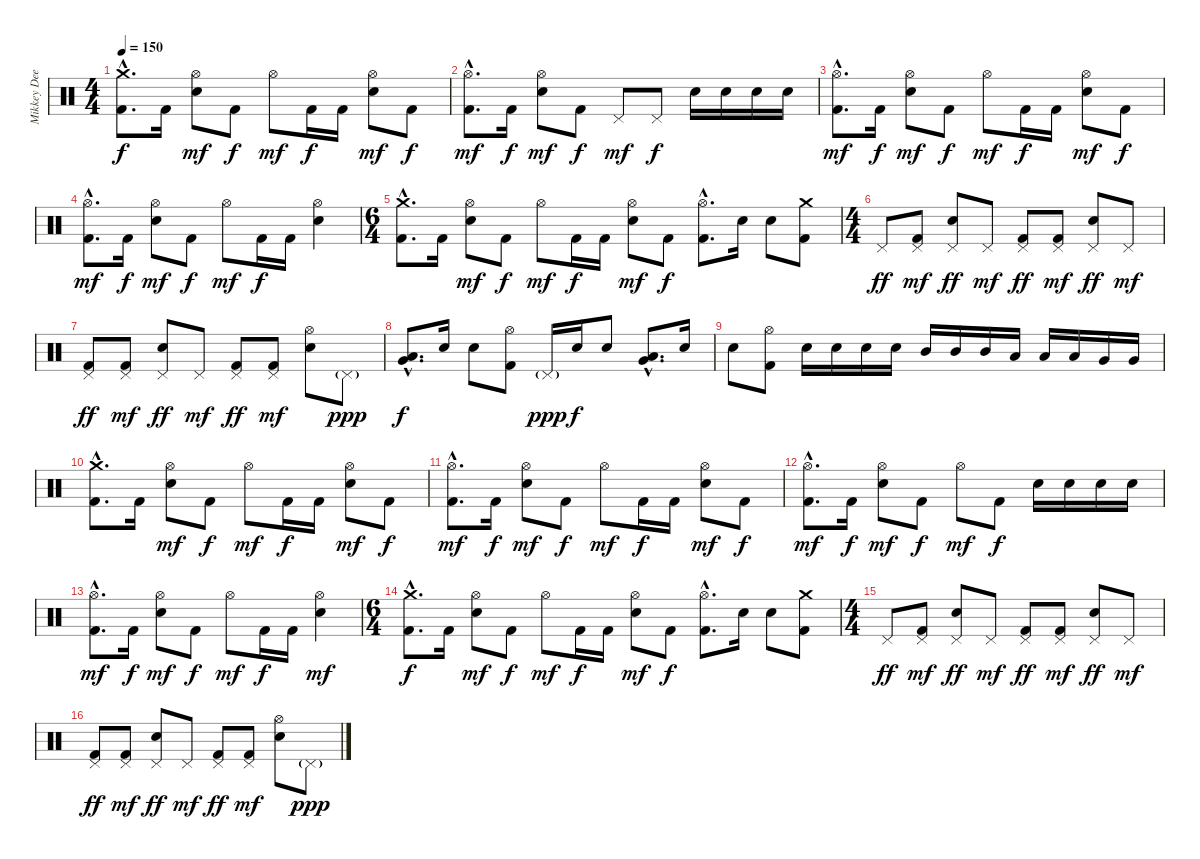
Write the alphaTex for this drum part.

\track ("Mikkey Dee" "Mikkey Dee") {instrument percussion}
\staff {score}
\articulation defaults
\ts (4 4)
\tempo 150
\clef neutral
\ks c
("Kick (hit) 2"{hac} "Crash medium (hit)"{hac}).8{d dy f} "Kick (hit) 2".16 ("Hi-Hat (open)" "Snare (hit) 2").8{dy mf} "Kick (hit) 2".8{dy f} "Hi-Hat (open)".8{dy mf} "Kick (hit) 2".16{dy f} "Kick (hit) 2".16 ("Hi-Hat (open)" "Snare (hit) 2").8{dy mf} "Kick (hit) 2".8{dy f} |
("Kick (hit) 2"{hac} "Hi-Hat (open)"{hac}).8{d dy mf} "Kick (hit) 2".16{dy f} ("Hi-Hat (open)" "Snare (hit) 2").8{dy mf} "Kick (hit) 2".8{dy f} "Pedal Hi-Hat (hit)".8{dy mf} "Pedal Hi-Hat (hit)".8{dy f} "Snare (hit) 2".16 "Snare (hit) 2".16 "Snare (hit) 2".16 "Snare (hit) 2".16 |
("Kick (hit) 2"{hac} "Hi-Hat (open)"{hac}).8{d dy mf} "Kick (hit) 2".16{dy f} ("Hi-Hat (open)" "Snare (hit) 2").8{dy mf} "Kick (hit) 2".8{dy f} "Hi-Hat (open)".8{dy mf} "Kick (hit) 2".16{dy f} "Kick (hit) 2".16 ("Hi-Hat (open)" "Snare (hit) 2").8{dy mf} "Kick (hit) 2".8{dy f} |
("Kick (hit) 2"{hac} "Hi-Hat (open)"{hac}).8{d dy mf} "Kick (hit) 2".16{dy f} ("Hi-Hat (open)" "Snare (hit) 2").8{dy mf} "Kick (hit) 2".8{dy f} "Hi-Hat (open)".8{dy mf} "Kick (hit) 2".16{dy f} "Kick (hit) 2".16 ("Hi-Hat (open)" "Snare (hit) 2").4 |
\ts (6 4)
("Kick (hit) 2"{hac} "Crash medium (hit)"{hac}).8{d} "Kick (hit) 2".16 ("Hi-Hat (open)" "Snare (hit) 2").8{dy mf} "Kick (hit) 2".8{dy f} "Hi-Hat (open)".8{dy mf} "Kick (hit) 2".16{dy f} "Kick (hit) 2".16 ("Hi-Hat (open)" "Snare (hit) 2").8{dy mf} "Kick (hit) 2".8{dy f} ("Kick (hit) 2"{hac} "Hi-Hat (open)"{hac}).8{d} "Snare (hit) 2".16 "Snare (hit) 2".8 ("Kick (hit) 2" "Crash medium (hit)").8 |
\ts (4 4)
"Pedal Hi-Hat (hit)".8{dy ff} ("Kick (hit) 2" "Pedal Hi-Hat (hit)").8{dy mf} ("Pedal Hi-Hat (hit)" "Snare (hit) 2").8{dy ff} "Pedal Hi-Hat (hit)".8{dy mf} ("Kick (hit) 2" "Pedal Hi-Hat (hit)").8{dy ff} ("Kick (hit) 2" "Pedal Hi-Hat (hit)").8{dy mf} ("Pedal Hi-Hat (hit)" "Snare (hit) 2").8{dy ff} "Pedal Hi-Hat (hit)".8{dy mf} |
("Kick (hit) 2" "Pedal Hi-Hat (hit)").8{dy ff} ("Kick (hit) 2" "Pedal Hi-Hat (hit)").8{dy mf} ("Pedal Hi-Hat (hit)" "Snare (hit) 2").8{dy ff} "Pedal Hi-Hat (hit)".8{dy mf} ("Kick (hit) 2" "Pedal Hi-Hat (hit)").8{dy ff} ("Kick (hit) 2" "Pedal Hi-Hat (hit)").8{dy mf} ("Hi-Hat (open)" "Snare (hit) 2").8 "Pedal Hi-Hat (hit)"{g}.8{dy ppp} |
("Low Floor Tom (hit)"{hac} "Very Low Tom (hit)"{hac}).8{d dy f} "Snare (hit) 2".16 "Snare (hit) 2".8 ("Kick (hit) 2" "Hi-Hat (open)").8 "Pedal Hi-Hat (hit)"{g}.16{dy ppp} "Snare (hit) 2".16{dy f} "Snare (hit) 2".8 ("Low Floor Tom (hit)"{hac} "Very Low Tom (hit)"{hac}).8{d} "Snare (hit) 2".16 |
"Snare (hit) 2".8 ("Kick (hit) 2" "Hi-Hat (open)").8 "Snare (hit) 2".16 "Snare (hit) 2".16 "Snare (hit) 2".16 "Snare (hit) 2".16 "Mid Tom (hit)".16 "Mid Tom (hit)".16 "Mid Tom (hit)".16 "Low Tom (hit)".16 "Low Tom (hit)".16 "Low Tom (hit)".16 "Very Low Tom (hit)".16 "Very Low Tom (hit)".16 |
("Kick (hit) 2"{hac} "Crash medium (hit)"{hac}).8{d} "Kick (hit) 2".16 ("Hi-Hat (open)" "Snare (hit) 2").8{dy mf} "Kick (hit) 2".8{dy f} "Hi-Hat (open)".8{dy mf} "Kick (hit) 2".16{dy f} "Kick (hit) 2".16 ("Hi-Hat (open)" "Snare (hit) 2").8{dy mf} "Kick (hit) 2".8{dy f} |
("Kick (hit) 2"{hac} "Hi-Hat (open)"{hac}).8{d dy mf} "Kick (hit) 2".16{dy f} ("Hi-Hat (open)" "Snare (hit) 2").8{dy mf} "Kick (hit) 2".8{dy f} "Hi-Hat (open)".8{dy mf} "Kick (hit) 2".16{dy f} "Kick (hit) 2".16 ("Hi-Hat (open)" "Snare (hit) 2").8{dy mf} "Kick (hit) 2".8{dy f} |
("Kick (hit) 2"{hac} "Hi-Hat (open)"{hac}).8{d dy mf} "Kick (hit) 2".16{dy f} ("Hi-Hat (open)" "Snare (hit) 2").8{dy mf} "Kick (hit) 2".8{dy f} "Hi-Hat (open)".8{dy mf} "Kick (hit) 2".8{dy f} "Snare (hit) 2".16 "Snare (hit) 2".16 "Snare (hit) 2".16 "Snare (hit) 2".16 |
("Kick (hit) 2"{hac} "Hi-Hat (open)"{hac}).8{d dy mf} "Kick (hit) 2".16{dy f} ("Hi-Hat (open)" "Snare (hit) 2").8{dy mf} "Kick (hit) 2".8{dy f} "Hi-Hat (open)".8{dy mf} "Kick (hit) 2".16{dy f} "Kick (hit) 2".16 ("Hi-Hat (open)" "Snare (hit) 2").4{dy mf} |
\ts (6 4)
("Kick (hit) 2"{hac} "Crash medium (hit)"{hac}).8{d dy f} "Kick (hit) 2".16 ("Hi-Hat (open)" "Snare (hit) 2").8{dy mf} "Kick (hit) 2".8{dy f} "Hi-Hat (open)".8{dy mf} "Kick (hit) 2".16{dy f} "Kick (hit) 2".16 ("Hi-Hat (open)" "Snare (hit) 2").8{dy mf} "Kick (hit) 2".8{dy f} ("Kick (hit) 2"{hac} "Hi-Hat (open)"{hac}).8{d} "Snare (hit) 2".16 "Snare (hit) 2".8 ("Kick (hit) 2" "Crash medium (hit)").8 |
\ts (4 4)
"Pedal Hi-Hat (hit)".8{dy ff} ("Kick (hit) 2" "Pedal Hi-Hat (hit)").8{dy mf} ("Pedal Hi-Hat (hit)" "Snare (hit) 2").8{dy ff} "Pedal Hi-Hat (hit)".8{dy mf} ("Kick (hit) 2" "Pedal Hi-Hat (hit)").8{dy ff} ("Kick (hit) 2" "Pedal Hi-Hat (hit)").8{dy mf} ("Pedal Hi-Hat (hit)" "Snare (hit) 2").8{dy ff} "Pedal Hi-Hat (hit)".8{dy mf} |
("Kick (hit) 2" "Pedal Hi-Hat (hit)").8{dy ff} ("Kick (hit) 2" "Pedal Hi-Hat (hit)").8{dy mf} ("Pedal Hi-Hat (hit)" "Snare (hit) 2").8{dy ff} "Pedal Hi-Hat (hit)".8{dy mf} ("Kick (hit) 2" "Pedal Hi-Hat (hit)").8{dy ff} ("Kick (hit) 2" "Pedal Hi-Hat (hit)").8{dy mf} ("Hi-Hat (open)" "Snare (hit) 2").8 "Pedal Hi-Hat (hit)"{g}.8{dy ppp}
